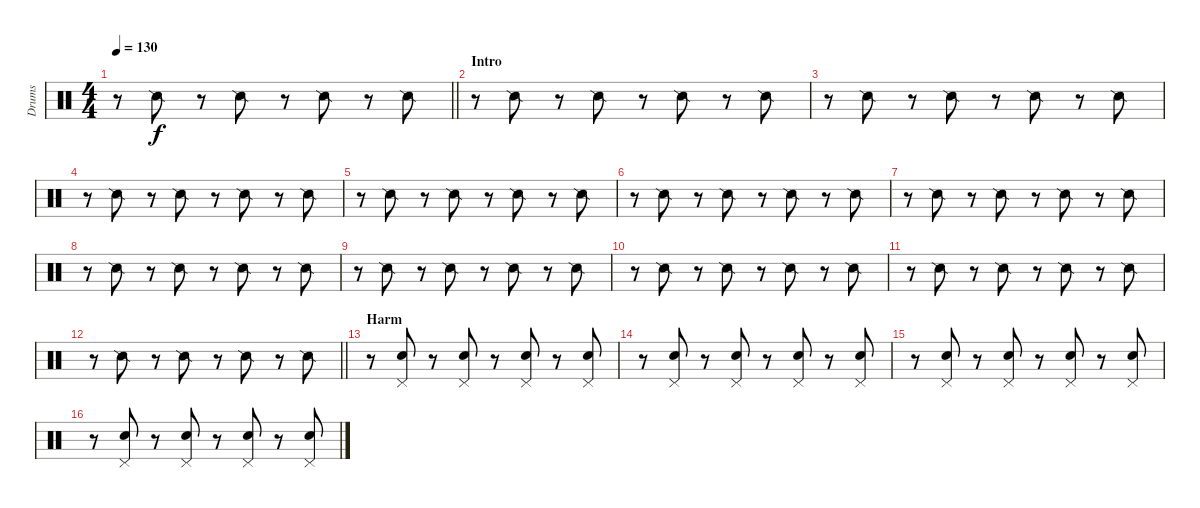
\track ("Drums" "Drums") {instrument percussion}
\staff {score}
\articulation defaults
\ts (4 4)
\tempo 130
\clef neutral
\barLineRight lightlight
\ks c
r.8{dy f} "Snare (side stick) 2".8 r.8 "Snare (side stick) 2".8 r.8 "Snare (side stick) 2".8 r.8 "Snare (side stick) 2".8 |
\section ("" "Intro")
r.8 "Snare (side stick) 2".8 r.8 "Snare (side stick) 2".8 r.8 "Snare (side stick) 2".8 r.8 "Snare (side stick) 2".8 |
r.8 "Snare (side stick) 2".8 r.8 "Snare (side stick) 2".8 r.8 "Snare (side stick) 2".8 r.8 "Snare (side stick) 2".8 |
r.8 "Snare (side stick) 2".8 r.8 "Snare (side stick) 2".8 r.8 "Snare (side stick) 2".8 r.8 "Snare (side stick) 2".8 |
r.8 "Snare (side stick) 2".8 r.8 "Snare (side stick) 2".8 r.8 "Snare (side stick) 2".8 r.8 "Snare (side stick) 2".8 |
r.8 "Snare (side stick) 2".8 r.8 "Snare (side stick) 2".8 r.8 "Snare (side stick) 2".8 r.8 "Snare (side stick) 2".8 |
r.8 "Snare (side stick) 2".8 r.8 "Snare (side stick) 2".8 r.8 "Snare (side stick) 2".8 r.8 "Snare (side stick) 2".8 |
r.8 "Snare (side stick) 2".8 r.8 "Snare (side stick) 2".8 r.8 "Snare (side stick) 2".8 r.8 "Snare (side stick) 2".8 |
r.8 "Snare (side stick) 2".8 r.8 "Snare (side stick) 2".8 r.8 "Snare (side stick) 2".8 r.8 "Snare (side stick) 2".8 |
r.8 "Snare (side stick) 2".8 r.8 "Snare (side stick) 2".8 r.8 "Snare (side stick) 2".8 r.8 "Snare (side stick) 2".8 |
r.8 "Snare (side stick) 2".8 r.8 "Snare (side stick) 2".8 r.8 "Snare (side stick) 2".8 r.8 "Snare (side stick) 2".8 |
\barLineRight lightlight
r.8 "Snare (side stick) 2".8 r.8 "Snare (side stick) 2".8 r.8 "Snare (side stick) 2".8 r.8 "Snare (side stick) 2".8 |
\section ("" "Harm")
r.8 ("Snare (hit) 2" "Pedal Hi-Hat (hit)").8 r.8 ("Snare (hit) 2" "Pedal Hi-Hat (hit)").8 r.8 ("Snare (hit) 2" "Pedal Hi-Hat (hit)").8 r.8 ("Snare (hit) 2" "Pedal Hi-Hat (hit)").8 |
r.8 ("Snare (hit) 2" "Pedal Hi-Hat (hit)").8 r.8 ("Snare (hit) 2" "Pedal Hi-Hat (hit)").8 r.8 ("Snare (hit) 2" "Pedal Hi-Hat (hit)").8 r.8 ("Snare (hit) 2" "Pedal Hi-Hat (hit)").8 |
r.8 ("Snare (hit) 2" "Pedal Hi-Hat (hit)").8 r.8 ("Snare (hit) 2" "Pedal Hi-Hat (hit)").8 r.8 ("Snare (hit) 2" "Pedal Hi-Hat (hit)").8 r.8 ("Snare (hit) 2" "Pedal Hi-Hat (hit)").8 |
r.8 ("Snare (hit) 2" "Pedal Hi-Hat (hit)").8 r.8 ("Snare (hit) 2" "Pedal Hi-Hat (hit)").8 r.8 ("Snare (hit) 2" "Pedal Hi-Hat (hit)").8 r.8 ("Snare (hit) 2" "Pedal Hi-Hat (hit)").8
